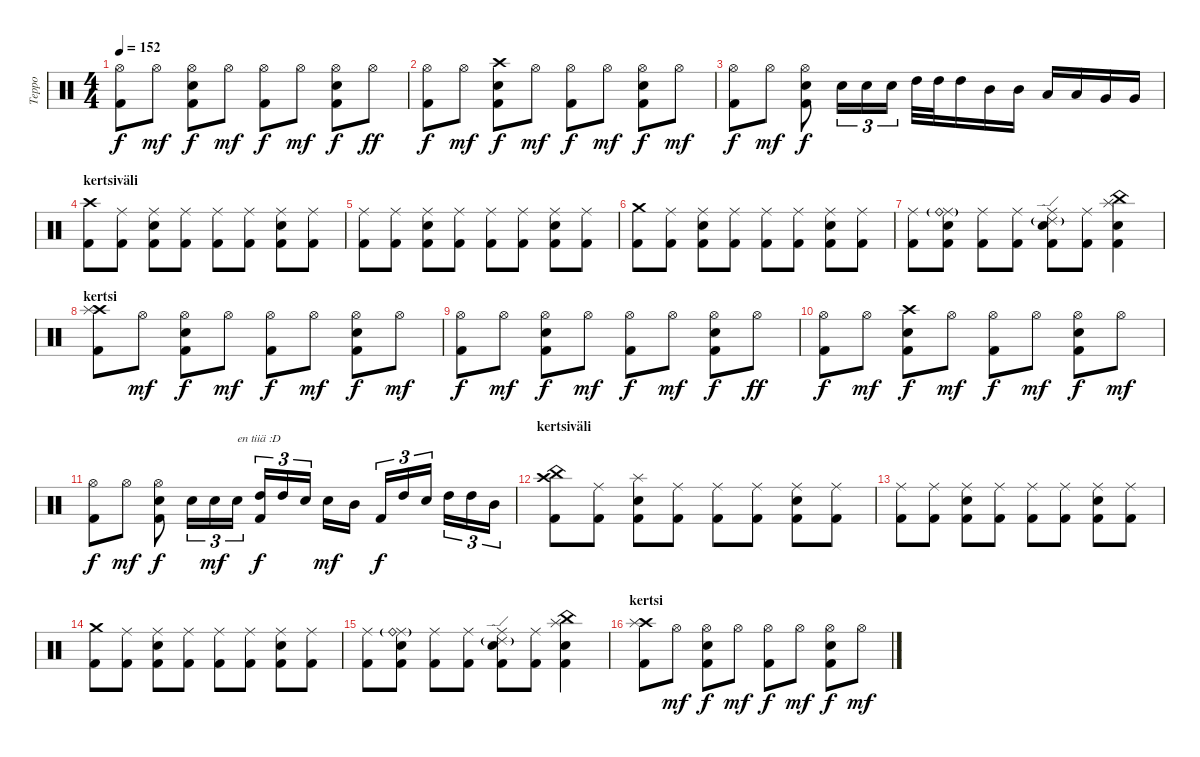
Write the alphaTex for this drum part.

\track ("Teppo" "Teppo") {instrument percussion}
\staff {score}
\articulation defaults
\ts (4 4)
\tempo 152
\clef neutral
\ks c
("Hi-Hat (open)" "Kick (hit) 2").8{dy f} "Hi-Hat (open)".8{dy mf} ("Hi-Hat (open)" "Electric Snare (hit)" "Kick (hit) 2").8{dy f} "Hi-Hat (open)".8{dy mf} ("Hi-Hat (open)" "Kick (hit) 2").8{dy f} "Hi-Hat (open)".8{dy mf} ("Hi-Hat (open)" "Electric Snare (hit)" "Kick (hit) 2").8{dy f} "Hi-Hat (open)".8{dy ff} |
("Hi-Hat (open)" "Kick (hit) 2").8{dy f} "Hi-Hat (open)".8{dy mf} ("Crash high (hit)" "Electric Snare (hit)" "Kick (hit) 2").8{dy f} "Hi-Hat (open)".8{dy mf} ("Hi-Hat (open)" "Kick (hit) 2").8{dy f} "Hi-Hat (open)".8{dy mf} ("Hi-Hat (open)" "Electric Snare (hit)" "Kick (hit) 2").8{dy f} "Hi-Hat (open)".8{dy mf} |
("Hi-Hat (open)" "Kick (hit) 2").8{dy f} "Hi-Hat (open)".8{dy mf} ("Hi-Hat (open)" "Electric Snare (hit)" "Kick (hit) 2").8{dy f} "Electric Snare (hit)".16{tu (3 2)} "Electric Snare (hit)".16{tu (3 2)} "Electric Snare (hit)".16{tu (3 2)} "High Tom (hit)".32 "High Tom (hit)".32 "High Tom (hit)".16 "Mid Tom (hit)".16 "Mid Tom (hit)".16 "Low Tom (hit)".16 "Low Tom (hit)".16 "Very Low Tom (hit)".16 "Very Low Tom (hit)".16 |
\section ("" "kertsiväli")
("Crash high (hit)" "Kick (hit) 2").8 ("Ride (middle)" "Kick (hit) 2").8 ("Ride (middle)" "Electric Snare (hit)" "Kick (hit) 2").8 ("Ride (middle)" "Kick (hit) 2").8 ("Ride (middle)" "Kick (hit) 2").8 ("Ride (middle)" "Kick (hit) 2").8 ("Ride (middle)" "Electric Snare (hit)" "Kick (hit) 2").8 ("Ride (middle)" "Kick (hit) 2").8 |
("Ride (middle)" "Kick (hit) 2").8 ("Ride (middle)" "Kick (hit) 2").8 ("Ride (middle)" "Electric Snare (hit)" "Kick (hit) 2").8 ("Ride (middle)" "Kick (hit) 2").8 ("Ride (middle)" "Kick (hit) 2").8 ("Ride (middle)" "Kick (hit) 2").8 ("Ride (middle)" "Electric Snare (hit)" "Kick (hit) 2").8 ("Ride (middle)" "Kick (hit) 2").8 |
("Crash medium (hit)" "Kick (hit) 2").8 ("Ride (middle)" "Kick (hit) 2").8 ("Ride (middle)" "Electric Snare (hit)" "Kick (hit) 2").8 ("Ride (middle)" "Kick (hit) 2").8 ("Ride (middle)" "Kick (hit) 2").8 ("Ride (middle)" "Kick (hit) 2").8 ("Ride (middle)" "Electric Snare (hit)" "Kick (hit) 2").8 ("Ride (middle)" "Kick (hit) 2").8 |
("Ride (middle)" "Kick (hit) 2").8 ("Ride (middle)" "Ride (bell)"{g} "Electric Snare (hit)" "Kick (hit) 2").8 ("Ride (middle)" "Kick (hit) 2").8 ("Ride (middle)" "Kick (hit) 2").8 ("Ride (middle)" "Ride (edge) 2"{g} "Electric Snare (hit)" "Kick (hit) 2").8 ("Ride (middle)" "Kick (hit) 2").8 ("China (hit)" "Splash (hit)" "Electric Snare (hit)" "Kick (hit) 2").4 |
\section ("" "kertsi")
("Crash high (hit)" "Splash (hit)" "Kick (hit) 2").8 "Hi-Hat (open)".8{dy mf} ("Hi-Hat (open)" "Electric Snare (hit)" "Kick (hit) 2").8{dy f} "Hi-Hat (open)".8{dy mf} ("Hi-Hat (open)" "Kick (hit) 2").8{dy f} "Hi-Hat (open)".8{dy mf} ("Hi-Hat (open)" "Electric Snare (hit)" "Kick (hit) 2").8{dy f} "Hi-Hat (open)".8{dy mf} |
("Hi-Hat (open)" "Kick (hit) 2").8{dy f} "Hi-Hat (open)".8{dy mf} ("Hi-Hat (open)" "Electric Snare (hit)" "Kick (hit) 2").8{dy f} "Hi-Hat (open)".8{dy mf} ("Hi-Hat (open)" "Kick (hit) 2").8{dy f} "Hi-Hat (open)".8{dy mf} ("Hi-Hat (open)" "Electric Snare (hit)" "Kick (hit) 2").8{dy f} "Hi-Hat (open)".8{dy ff} |
("Hi-Hat (open)" "Kick (hit) 2").8{dy f} "Hi-Hat (open)".8{dy mf} ("Crash high (hit)" "Electric Snare (hit)" "Kick (hit) 2").8{dy f} "Hi-Hat (open)".8{dy mf} ("Hi-Hat (open)" "Kick (hit) 2").8{dy f} "Hi-Hat (open)".8{dy mf} ("Hi-Hat (open)" "Electric Snare (hit)" "Kick (hit) 2").8{dy f} "Hi-Hat (open)".8{dy mf} |
("Hi-Hat (open)" "Kick (hit) 2").8{dy f} "Hi-Hat (open)".8{dy mf} ("Hi-Hat (open)" "Electric Snare (hit)" "Kick (hit) 2").8{dy f} "Electric Snare (hit)".16{tu (3 2)} "Electric Snare (hit)".16{tu (3 2) dy mf} "Electric Snare (hit)".16{tu (3 2) txt "en tiiä :D"} ("High Tom (hit)" "Kick (hit) 2").16{tu (3 2) dy f} "High Tom (hit)".16{tu (3 2)} "Electric Snare (hit)".16{tu (3 2)} "Electric Snare (hit)".16{dy mf} "Mid Tom (hit)".16 "Kick (hit) 2".16{tu (3 2) dy f} "High Tom (hit)".16{tu (3 2)} "Electric Snare (hit)".16{tu (3 2)} "High Tom (hit)".16{tu (3 2)} "High Tom (hit)".16{tu (3 2)} "Mid Tom (hit)".16{tu (3 2)} |
\section ("" "kertsiväli")
("Crash high (hit)" "China (hit)" "Kick (hit) 2").8 ("Ride (middle)" "Kick (hit) 2").8 ("Splash (hit)" "Electric Snare (hit)" "Kick (hit) 2").8 ("Ride (middle)" "Kick (hit) 2").8 ("Ride (middle)" "Kick (hit) 2").8 ("Ride (middle)" "Kick (hit) 2").8 ("Ride (middle)" "Electric Snare (hit)" "Kick (hit) 2").8 ("Ride (middle)" "Kick (hit) 2").8 |
("Ride (middle)" "Kick (hit) 2").8 ("Ride (middle)" "Kick (hit) 2").8 ("Ride (middle)" "Electric Snare (hit)" "Kick (hit) 2").8 ("Ride (middle)" "Kick (hit) 2").8 ("Ride (middle)" "Kick (hit) 2").8 ("Ride (middle)" "Kick (hit) 2").8 ("Ride (middle)" "Electric Snare (hit)" "Kick (hit) 2").8 ("Ride (middle)" "Kick (hit) 2").8 |
("Crash medium (hit)" "Kick (hit) 2").8 ("Ride (middle)" "Kick (hit) 2").8 ("Ride (middle)" "Electric Snare (hit)" "Kick (hit) 2").8 ("Ride (middle)" "Kick (hit) 2").8 ("Ride (middle)" "Kick (hit) 2").8 ("Ride (middle)" "Kick (hit) 2").8 ("Ride (middle)" "Electric Snare (hit)" "Kick (hit) 2").8 ("Ride (middle)" "Kick (hit) 2").8 |
("Ride (middle)" "Kick (hit) 2").8 ("Ride (middle)" "Ride (bell)"{g} "Electric Snare (hit)" "Kick (hit) 2").8 ("Ride (middle)" "Kick (hit) 2").8 ("Ride (middle)" "Kick (hit) 2").8 ("Ride (middle)" "Ride (edge) 2"{g} "Electric Snare (hit)" "Kick (hit) 2").8 ("Ride (middle)" "Kick (hit) 2").8 ("China (hit)" "Splash (hit)" "Electric Snare (hit)" "Kick (hit) 2").4 |
\section ("" "kertsi")
("Crash high (hit)" "Splash (hit)" "Kick (hit) 2").8 "Hi-Hat (open)".8{dy mf} ("Hi-Hat (open)" "Electric Snare (hit)" "Kick (hit) 2").8{dy f} "Hi-Hat (open)".8{dy mf} ("Hi-Hat (open)" "Kick (hit) 2").8{dy f} "Hi-Hat (open)".8{dy mf} ("Hi-Hat (open)" "Electric Snare (hit)" "Kick (hit) 2").8{dy f} "Hi-Hat (open)".8{dy mf}
